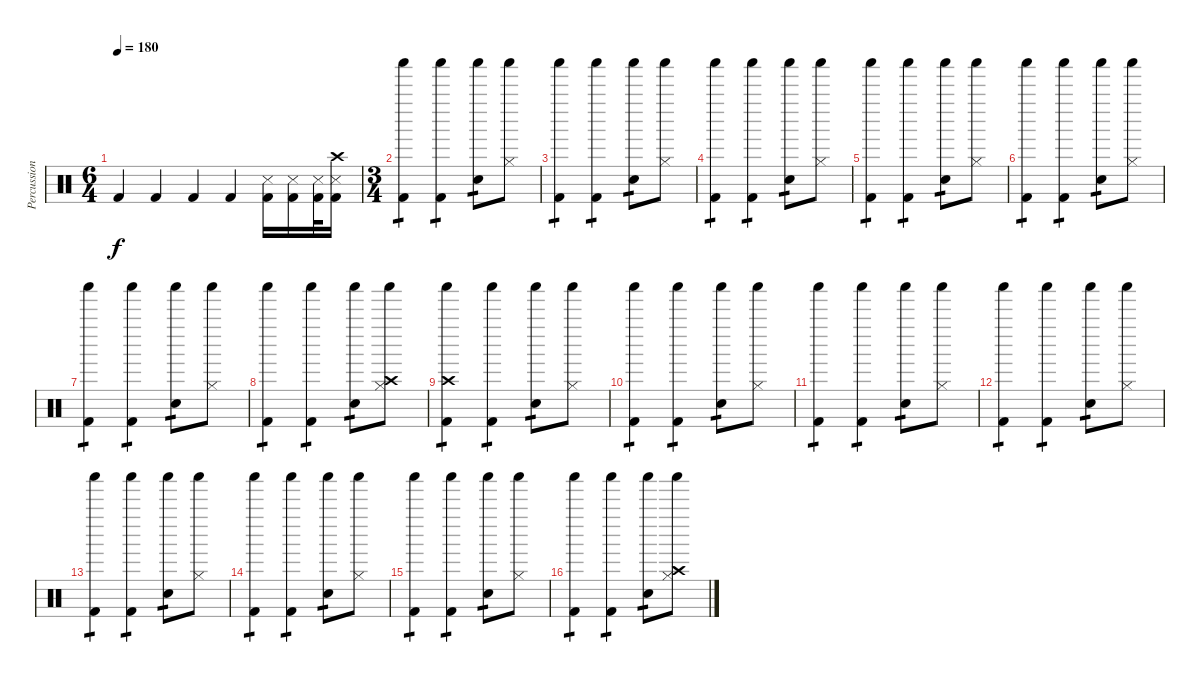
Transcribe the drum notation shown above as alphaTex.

\track ("Percussions" "Percussion") {instrument percussion}
\staff {score}
\articulation defaults
\ts (6 4)
\tempo 180
\clef neutral
\ks c "Kick (hit) 2".4{dy f} "Kick (hit) 2".4 "Kick (hit) 2".4 "Kick (hit) 2".4
("Kick (hit) 2" "Snare (side stick) 3").16 ("Kick (hit) 2" "Snare (side stick) 3").16 ("Kick (hit) 2" "Snare (side stick) 3").32 ("Kick (hit) 2" "Snare (side stick) 3" "Crash high (hit)").16 |
\ts (3 4)
("Kick (hit) 2" "Shaker (hit)").4{tp 1} ("Kick (hit) 2" "Shaker (hit)").4{tp 1} ("Shaker (hit)" "Snare (hit) 2").8{tp 1} ("Shaker (hit)" "Hi-Hat (closed)").8 |
("Kick (hit) 2" "Shaker (hit)").4{tp 1} ("Kick (hit) 2" "Shaker (hit)").4{tp 1} ("Shaker (hit)" "Snare (hit) 2").8{tp 1} ("Shaker (hit)" "Hi-Hat (closed)").8 |
("Kick (hit) 2" "Shaker (hit)").4{tp 1} ("Kick (hit) 2" "Shaker (hit)").4{tp 1} ("Shaker (hit)" "Snare (hit) 2").8{tp 1} ("Shaker (hit)" "Hi-Hat (closed)").8 |
("Kick (hit) 2" "Shaker (hit)").4{tp 1} ("Kick (hit) 2" "Shaker (hit)").4{tp 1} ("Shaker (hit)" "Snare (hit) 2").8{tp 1} ("Shaker (hit)" "Hi-Hat (closed)").8 |
("Kick (hit) 2" "Shaker (hit)").4{tp 1} ("Kick (hit) 2" "Shaker (hit)").4{tp 1} ("Shaker (hit)" "Snare (hit) 2").8{tp 1} ("Shaker (hit)" "Hi-Hat (closed)").8 |
("Kick (hit) 2" "Shaker (hit)").4{tp 1} ("Kick (hit) 2" "Shaker (hit)").4{tp 1} ("Shaker (hit)" "Snare (hit) 2").8{tp 1} ("Shaker (hit)" "Hi-Hat (closed)").8 |
("Kick (hit) 2" "Shaker (hit)").4{tp 1} ("Kick (hit) 2" "Shaker (hit)").4{tp 1} ("Shaker (hit)" "Snare (hit) 2").8{tp 1} ("Shaker (hit)" "Hi-Hat (closed)" "Crash high (hit)").8 |
("Kick (hit) 2" "Shaker (hit)" "Crash high (hit)").4{tp 1} ("Kick (hit) 2" "Shaker (hit)").4{tp 1} ("Shaker (hit)" "Snare (hit) 2").8{tp 1} ("Shaker (hit)" "Hi-Hat (closed)").8 |
("Kick (hit) 2" "Shaker (hit)").4{tp 1} ("Kick (hit) 2" "Shaker (hit)").4{tp 1} ("Shaker (hit)" "Snare (hit) 2").8{tp 1} ("Shaker (hit)" "Hi-Hat (closed)").8 |
("Kick (hit) 2" "Shaker (hit)").4{tp 1} ("Kick (hit) 2" "Shaker (hit)").4{tp 1} ("Shaker (hit)" "Snare (hit) 2").8{tp 1} ("Shaker (hit)" "Hi-Hat (closed)").8 |
("Kick (hit) 2" "Shaker (hit)").4{tp 1} ("Kick (hit) 2" "Shaker (hit)").4{tp 1} ("Shaker (hit)" "Snare (hit) 2").8{tp 1} ("Shaker (hit)" "Hi-Hat (closed)").8 |
("Kick (hit) 2" "Shaker (hit)").4{tp 1} ("Kick (hit) 2" "Shaker (hit)").4{tp 1} ("Shaker (hit)" "Snare (hit) 2").8{tp 1} ("Shaker (hit)" "Hi-Hat (closed)").8 |
("Kick (hit) 2" "Shaker (hit)").4{tp 1} ("Kick (hit) 2" "Shaker (hit)").4{tp 1} ("Shaker (hit)" "Snare (hit) 2").8{tp 1} ("Shaker (hit)" "Hi-Hat (closed)").8 |
("Kick (hit) 2" "Shaker (hit)").4{tp 1} ("Kick (hit) 2" "Shaker (hit)").4{tp 1} ("Shaker (hit)" "Snare (hit) 2").8{tp 1} ("Shaker (hit)" "Hi-Hat (closed)").8 |
("Kick (hit) 2" "Shaker (hit)").4{tp 1} ("Kick (hit) 2" "Shaker (hit)").4{tp 1} ("Shaker (hit)" "Snare (hit) 2").8{tp 1} ("Shaker (hit)" "Hi-Hat (closed)" "Crash high (hit)").8
